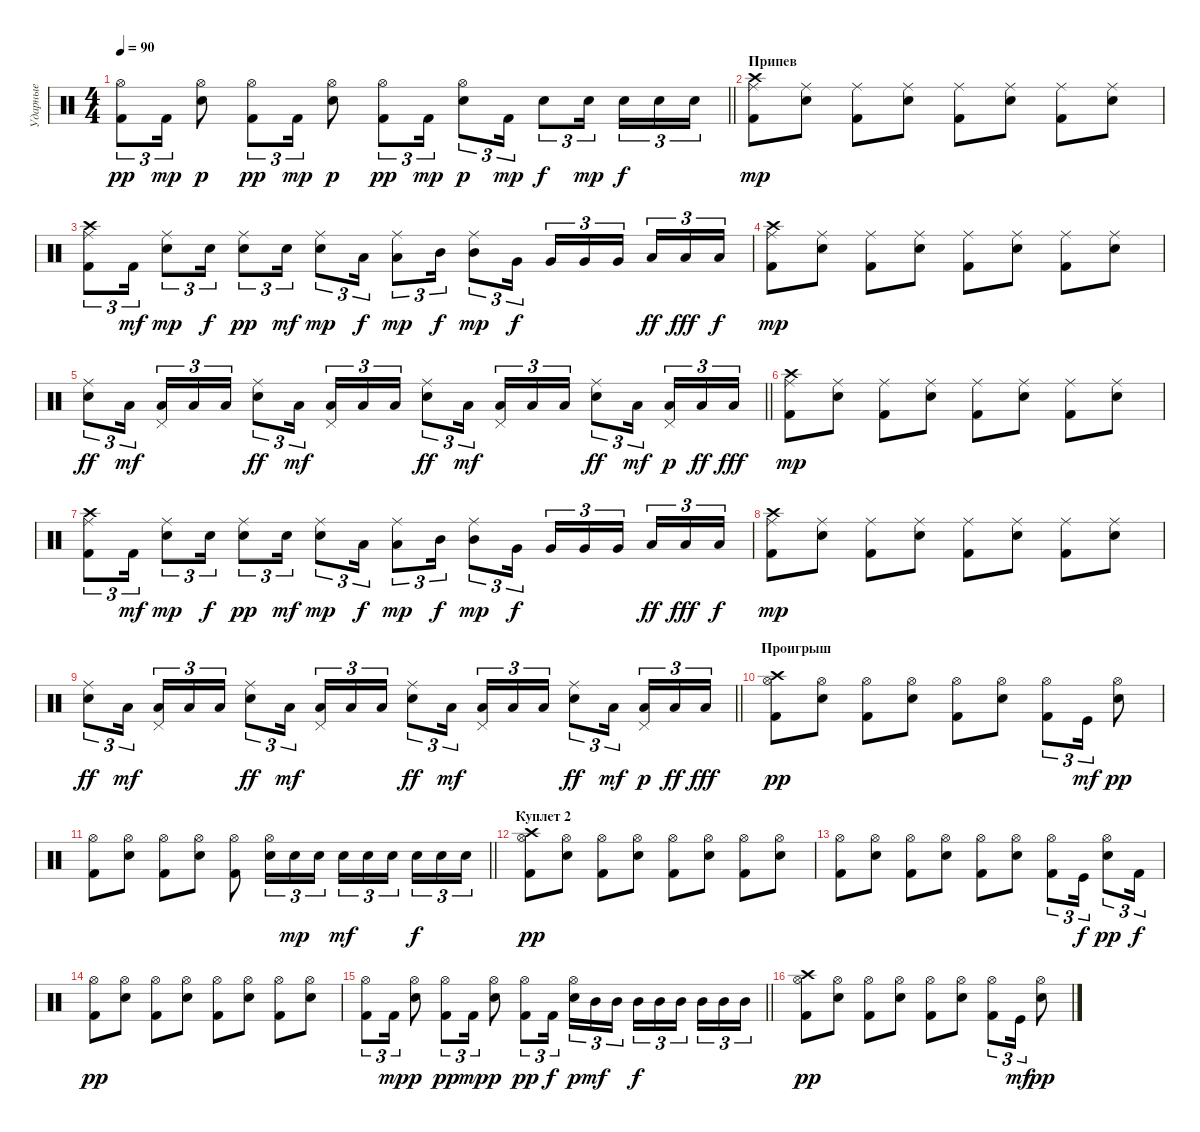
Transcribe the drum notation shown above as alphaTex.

\track ("Ударные" "Ударные") {instrument percussion}
\staff {score}
\articulation defaults
\ts (4 4)
\tempo 90
\clef neutral
\barLineRight lightlight
\ks c
("Hi-Hat (open)" "Kick (hit) 2").8{tu (3 2) dy pp} "Kick (hit) 2".16{tu (3 2) dy mp} ("Hi-Hat (open)" "Snare (hit) 2").8{dy p} ("Hi-Hat (open)" "Kick (hit) 2").8{tu (3 2) dy pp} "Kick (hit) 2".16{tu (3 2) dy mp} ("Hi-Hat (open)" "Snare (hit) 2").8{dy p} ("Hi-Hat (open)" "Kick (hit) 2").8{tu (3 2) dy pp} "Kick (hit) 2".16{tu (3 2) dy mp} ("Hi-Hat (open)" "Snare (hit) 2").8{tu (3 2) dy p} "Kick (hit) 2".16{tu (3 2) dy mp} "Snare (hit) 2".8{tu (3 2) dy f} "Snare (hit) 2".16{tu (3 2) dy mp beam splitsecondary} "Snare (hit) 2".16{tu (3 2) dy f} "Snare (hit) 2".16{tu (3 2)} "Snare (hit) 2".16{tu (3 2)} |
\section ("" "Припев")
("Crash high (hit)" "Ride (middle)" "Kick (hit) 2").8{dy mp} ("Ride (middle)" "Snare (hit) 2").8 ("Ride (middle)" "Kick (hit) 2").8 ("Ride (middle)" "Snare (hit) 2").8 ("Ride (middle)" "Kick (hit) 2").8 ("Ride (middle)" "Snare (hit) 2").8 ("Ride (middle)" "Kick (hit) 2").8 ("Ride (middle)" "Snare (hit) 2").8 |
("Crash high (hit)" "Ride (middle)" "Kick (hit) 2").8{tu (3 2)} "Kick (hit) 2".16{tu (3 2) dy mf} ("Ride (middle)" "Snare (hit) 2").8{tu (3 2) dy mp} "Snare (hit) 2".16{tu (3 2) dy f} ("Ride (middle)" "Snare (hit) 2").8{tu (3 2) dy pp} "Electric Snare (hit)".16{tu (3 2) dy mf} ("Ride (middle)" "Electric Snare (hit)").8{tu (3 2) dy mp} "Low Tom (hit)".16{tu (3 2) dy f} ("Ride (middle)" "Low Tom (hit)").8{tu (3 2) dy mp} "Mid Tom (hit)".16{tu (3 2) dy f} ("Ride (middle)" "Mid Tom (hit)").8{tu (3 2) dy mp} "Very Low Tom (hit)".16{tu (3 2) dy f} "Very Low Tom (hit)".16{tu (3 2)} "Very Low Tom (hit)".16{tu (3 2)} "Very Low Tom (hit)".16{tu (3 2) beam splitsecondary} "Low Tom (hit)".16{tu (3 2) dy ff} "Low Tom (hit)".16{tu (3 2) dy fff} "Low Tom (hit)".16{tu (3 2) dy f} |
("Crash high (hit)" "Ride (middle)" "Kick (hit) 2").8{dy mp} ("Ride (middle)" "Snare (hit) 2").8 ("Ride (middle)" "Kick (hit) 2").8 ("Ride (middle)" "Snare (hit) 2").8 ("Ride (middle)" "Kick (hit) 2").8 ("Ride (middle)" "Snare (hit) 2").8 ("Ride (middle)" "Kick (hit) 2").8 ("Ride (middle)" "Snare (hit) 2").8 |
\barLineRight lightlight
("Ride (middle)" "Snare (hit) 2").8{tu (3 2) dy ff} "Low Tom (hit)".16{tu (3 2) dy mf beam splitsecondary} ("Pedal Hi-Hat (hit)" "Low Tom (hit)").16{tu (3 2)} "Low Tom (hit)".16{tu (3 2)} "Low Tom (hit)".16{tu (3 2)} ("Ride (middle)" "Snare (hit) 2").8{tu (3 2) dy ff} "Low Tom (hit)".16{tu (3 2) dy mf beam splitsecondary} ("Pedal Hi-Hat (hit)" "Low Tom (hit)").16{tu (3 2)} "Low Tom (hit)".16{tu (3 2)} "Low Tom (hit)".16{tu (3 2)} ("Ride (middle)" "Snare (hit) 2").8{tu (3 2) dy ff} "Low Tom (hit)".16{tu (3 2) dy mf beam splitsecondary} ("Pedal Hi-Hat (hit)" "Low Tom (hit)").16{tu (3 2)} "Low Tom (hit)".16{tu (3 2)} "Low Tom (hit)".16{tu (3 2)} ("Ride (middle)" "Snare (hit) 2").8{tu (3 2) dy ff} "Low Tom (hit)".16{tu (3 2) dy mf beam splitsecondary} ("Pedal Hi-Hat (hit)" "Low Tom (hit)").16{tu (3 2) dy p} "Low Tom (hit)".16{tu (3 2) dy ff} "Low Tom (hit)".16{tu (3 2) dy fff} |
("Crash high (hit)" "Ride (middle)" "Kick (hit) 2").8{dy mp} ("Ride (middle)" "Snare (hit) 2").8 ("Ride (middle)" "Kick (hit) 2").8 ("Ride (middle)" "Snare (hit) 2").8 ("Ride (middle)" "Kick (hit) 2").8 ("Ride (middle)" "Snare (hit) 2").8 ("Ride (middle)" "Kick (hit) 2").8 ("Ride (middle)" "Snare (hit) 2").8 |
("Crash high (hit)" "Ride (middle)" "Kick (hit) 2").8{tu (3 2)} "Kick (hit) 2".16{tu (3 2) dy mf} ("Ride (middle)" "Snare (hit) 2").8{tu (3 2) dy mp} "Snare (hit) 2".16{tu (3 2) dy f} ("Ride (middle)" "Snare (hit) 2").8{tu (3 2) dy pp} "Electric Snare (hit)".16{tu (3 2) dy mf} ("Ride (middle)" "Electric Snare (hit)").8{tu (3 2) dy mp} "Low Tom (hit)".16{tu (3 2) dy f} ("Ride (middle)" "Low Tom (hit)").8{tu (3 2) dy mp} "Mid Tom (hit)".16{tu (3 2) dy f} ("Ride (middle)" "Mid Tom (hit)").8{tu (3 2) dy mp} "Very Low Tom (hit)".16{tu (3 2) dy f} "Very Low Tom (hit)".16{tu (3 2)} "Very Low Tom (hit)".16{tu (3 2)} "Very Low Tom (hit)".16{tu (3 2) beam splitsecondary} "Low Tom (hit)".16{tu (3 2) dy ff} "Low Tom (hit)".16{tu (3 2) dy fff} "Low Tom (hit)".16{tu (3 2) dy f} |
("Crash high (hit)" "Ride (middle)" "Kick (hit) 2").8{dy mp} ("Ride (middle)" "Snare (hit) 2").8 ("Ride (middle)" "Kick (hit) 2").8 ("Ride (middle)" "Snare (hit) 2").8 ("Ride (middle)" "Kick (hit) 2").8 ("Ride (middle)" "Snare (hit) 2").8 ("Ride (middle)" "Kick (hit) 2").8 ("Ride (middle)" "Snare (hit) 2").8 |
\barLineRight lightlight
("Ride (middle)" "Snare (hit) 2").8{tu (3 2) dy ff} "Low Tom (hit)".16{tu (3 2) dy mf beam splitsecondary} ("Pedal Hi-Hat (hit)" "Low Tom (hit)").16{tu (3 2)} "Low Tom (hit)".16{tu (3 2)} "Low Tom (hit)".16{tu (3 2)} ("Ride (middle)" "Snare (hit) 2").8{tu (3 2) dy ff} "Low Tom (hit)".16{tu (3 2) dy mf beam splitsecondary} ("Pedal Hi-Hat (hit)" "Low Tom (hit)").16{tu (3 2)} "Low Tom (hit)".16{tu (3 2)} "Low Tom (hit)".16{tu (3 2)} ("Ride (middle)" "Snare (hit) 2").8{tu (3 2) dy ff} "Low Tom (hit)".16{tu (3 2) dy mf beam splitsecondary} ("Pedal Hi-Hat (hit)" "Low Tom (hit)").16{tu (3 2)} "Low Tom (hit)".16{tu (3 2)} "Low Tom (hit)".16{tu (3 2)} ("Ride (middle)" "Snare (hit) 2").8{tu (3 2) dy ff} "Low Tom (hit)".16{tu (3 2) dy mf beam splitsecondary} ("Pedal Hi-Hat (hit)" "Low Tom (hit)").16{tu (3 2) dy p} "Low Tom (hit)".16{tu (3 2) dy ff} "Low Tom (hit)".16{tu (3 2) dy fff} |
\section ("" "Проигрыш")
("Crash high (hit)" "Hi-Hat (open)" "Kick (hit) 2").8{dy pp} ("Hi-Hat (open)" "Snare (hit) 2").8 ("Hi-Hat (open)" "Kick (hit) 2").8 ("Hi-Hat (open)" "Snare (hit) 2").8 ("Hi-Hat (open)" "Kick (hit) 2").8 ("Hi-Hat (open)" "Snare (hit) 2").8 ("Hi-Hat (open)" "Kick (hit) 2").8{tu (3 2)} "Kick (hit)".16{tu (3 2) dy mf} ("Hi-Hat (open)" "Snare (hit) 2").8{dy pp} |
\barLineRight lightlight
("Hi-Hat (open)" "Kick (hit) 2").8 ("Hi-Hat (open)" "Snare (hit) 2").8 ("Hi-Hat (open)" "Kick (hit) 2").8 ("Hi-Hat (open)" "Snare (hit) 2").8 ("Hi-Hat (open)" "Kick (hit) 2").8 ("Hi-Hat (open)" "Snare (hit) 2").16{tu (3 2)} "Snare (hit) 2".16{tu (3 2) dy mp} "Snare (hit) 2".16{tu (3 2)} "Snare (hit) 2".16{tu (3 2) dy mf} "Snare (hit) 2".16{tu (3 2)} "Snare (hit) 2".16{tu (3 2) beam splitsecondary} "Snare (hit) 2".16{tu (3 2) dy f} "Snare (hit) 2".16{tu (3 2)} "Snare (hit) 2".16{tu (3 2)} |
\section ("" "Куплет 2")
("Crash high (hit)" "Hi-Hat (open)" "Kick (hit) 2").8{dy pp} ("Hi-Hat (open)" "Snare (hit) 2").8 ("Hi-Hat (open)" "Kick (hit) 2").8 ("Hi-Hat (open)" "Snare (hit) 2").8 ("Hi-Hat (open)" "Kick (hit) 2").8 ("Hi-Hat (open)" "Snare (hit) 2").8 ("Hi-Hat (open)" "Kick (hit) 2").8 ("Hi-Hat (open)" "Snare (hit) 2").8 |
("Hi-Hat (open)" "Kick (hit) 2").8 ("Hi-Hat (open)" "Snare (hit) 2").8 ("Hi-Hat (open)" "Kick (hit) 2").8 ("Hi-Hat (open)" "Snare (hit) 2").8 ("Hi-Hat (open)" "Kick (hit) 2").8 ("Hi-Hat (open)" "Snare (hit) 2").8 ("Hi-Hat (open)" "Kick (hit) 2").8{tu (3 2)} "Kick (hit)".16{tu (3 2) dy f} ("Hi-Hat (open)" "Snare (hit) 2").8{tu (3 2) dy pp} "Kick (hit) 2".16{tu (3 2) dy f} |
("Hi-Hat (open)" "Kick (hit) 2").8{dy pp} ("Hi-Hat (open)" "Snare (hit) 2").8 ("Hi-Hat (open)" "Kick (hit) 2").8 ("Hi-Hat (open)" "Snare (hit) 2").8 ("Hi-Hat (open)" "Kick (hit) 2").8 ("Hi-Hat (open)" "Snare (hit) 2").8 ("Hi-Hat (open)" "Kick (hit) 2").8 ("Hi-Hat (open)" "Snare (hit) 2").8 |
\barLineRight lightlight
("Hi-Hat (open)" "Kick (hit) 2").8{tu (3 2)} "Kick (hit) 2".16{tu (3 2) dy mp} ("Hi-Hat (open)" "Snare (hit) 2").8{dy p} ("Hi-Hat (open)" "Kick (hit) 2").8{tu (3 2) dy pp} "Kick (hit) 2".16{tu (3 2) dy mp} ("Hi-Hat (open)" "Snare (hit) 2").8{dy p} ("Hi-Hat (open)" "Kick (hit) 2").8{tu (3 2) dy pp} "Kick (hit) 2".16{tu (3 2) dy f beam splitsecondary} ("Hi-Hat (open)" "Snare (hit) 2").16{tu (3 2) dy p} "Mid Tom (hit)".16{tu (3 2) dy mf} "Mid Tom (hit)".16{tu (3 2)} "Mid Tom (hit)".16{tu (3 2) dy f} "Mid Tom (hit)".16{tu (3 2)} "Mid Tom (hit)".16{tu (3 2) beam splitsecondary} "Mid Tom (hit)".16{tu (3 2)} "Mid Tom (hit)".16{tu (3 2)} "Mid Tom (hit)".16{tu (3 2)} |
("Crash high (hit)" "Hi-Hat (open)" "Kick (hit) 2").8{dy pp} ("Hi-Hat (open)" "Snare (hit) 2").8 ("Hi-Hat (open)" "Kick (hit) 2").8 ("Hi-Hat (open)" "Snare (hit) 2").8 ("Hi-Hat (open)" "Kick (hit) 2").8 ("Hi-Hat (open)" "Snare (hit) 2").8 ("Hi-Hat (open)" "Kick (hit) 2").8{tu (3 2)} "Kick (hit)".16{tu (3 2) dy mf} ("Hi-Hat (open)" "Snare (hit) 2").8{dy pp}
